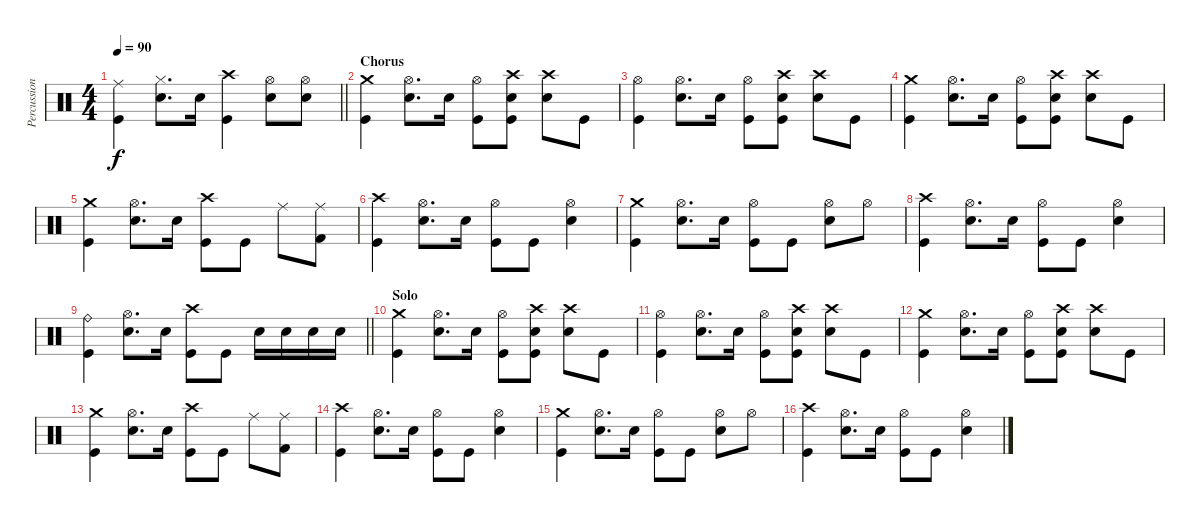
\track ("Percussion" "Percussion") {instrument percussion}
\staff {score}
\articulation defaults
\ts (4 4)
\tempo 90
\clef neutral
\barLineRight lightlight
\ks c
("Ride (middle)" "Kick (hit)").4{dy f} ("Electric Snare (hit)" "Hi-Hat (closed)").8{d} "Electric Snare (hit)".16 ("Crash high (hit)" "Kick (hit)").4 ("Electric Snare (hit)" "Hi-Hat (open)").8 ("Electric Snare (hit)" "Hi-Hat (open)").8 |
\section ("" "Chorus")
("Crash medium (hit)" "Kick (hit)").4 ("Electric Snare (hit)" "Hi-Hat (open)").8{d} "Electric Snare (hit)".16 ("Hi-Hat (open)" "Kick (hit)").8 ("Crash high (hit)" "Electric Snare (hit)" "Kick (hit)").8 ("Crash high (hit)" "Electric Snare (hit)").8 "Kick (hit)".8 |
("Hi-Hat (open)" "Kick (hit)").4 ("Electric Snare (hit)" "Hi-Hat (open)").8{d} "Electric Snare (hit)".16 ("Hi-Hat (open)" "Kick (hit)").8 ("Crash high (hit)" "Electric Snare (hit)" "Kick (hit)").8 ("Crash high (hit)" "Electric Snare (hit)").8 "Kick (hit)".8 |
("Crash medium (hit)" "Kick (hit)").4 ("Electric Snare (hit)" "Hi-Hat (open)").8{d} "Electric Snare (hit)".16 ("Hi-Hat (open)" "Kick (hit)").8 ("Crash high (hit)" "Electric Snare (hit)" "Kick (hit)").8 ("Crash high (hit)" "Electric Snare (hit)").8 "Kick (hit)".8 |
("Crash medium (hit)" "Kick (hit)").4 ("Electric Snare (hit)" "Hi-Hat (open)").8{d} "Electric Snare (hit)".16 ("Crash high (hit)" "Kick (hit)").8 "Kick (hit)".8 "Ride (middle)".8 ("Ride (middle)" "Kick (hit) 2").8 |
("Crash high (hit)" "Kick (hit)").4 ("Electric Snare (hit)" "Hi-Hat (open)").8{d} "Electric Snare (hit)".16 ("Hi-Hat (open)" "Kick (hit)").8 "Kick (hit)".8 ("Electric Snare (hit)" "Hi-Hat (open)").4 |
("Crash medium (hit)" "Kick (hit)").4 ("Electric Snare (hit)" "Hi-Hat (open)").8{d} "Electric Snare (hit)".16 ("Hi-Hat (open)" "Kick (hit)").8 "Kick (hit)".8 ("Electric Snare (hit)" "Hi-Hat (open)").8 "Hi-Hat (open)".8 |
("Crash high (hit)" "Kick (hit)").4 ("Electric Snare (hit)" "Hi-Hat (open)").8{d} "Electric Snare (hit)".16 ("Hi-Hat (open)" "Kick (hit)").8 "Kick (hit)".8 ("Electric Snare (hit)" "Hi-Hat (open)").4 |
\barLineRight lightlight
("Ride (bell)" "Kick (hit)").4 ("Electric Snare (hit)" "Hi-Hat (open)").8{d} "Electric Snare (hit)".16 ("Crash high (hit)" "Kick (hit)").8 "Kick (hit)".8 "Electric Snare (hit)".16 "Electric Snare (hit)".16 "Electric Snare (hit)".16 "Electric Snare (hit)".16 |
\section ("" "Solo")
("Crash medium (hit)" "Kick (hit)").4 ("Electric Snare (hit)" "Hi-Hat (open)").8{d} "Electric Snare (hit)".16 ("Hi-Hat (open)" "Kick (hit)").8 ("Crash high (hit)" "Electric Snare (hit)" "Kick (hit)").8 ("Crash high (hit)" "Electric Snare (hit)").8 "Kick (hit)".8 |
("Hi-Hat (open)" "Kick (hit)").4 ("Electric Snare (hit)" "Hi-Hat (open)").8{d} "Electric Snare (hit)".16 ("Hi-Hat (open)" "Kick (hit)").8 ("Crash high (hit)" "Electric Snare (hit)" "Kick (hit)").8 ("Crash high (hit)" "Electric Snare (hit)").8 "Kick (hit)".8 |
("Crash medium (hit)" "Kick (hit)").4 ("Electric Snare (hit)" "Hi-Hat (open)").8{d} "Electric Snare (hit)".16 ("Hi-Hat (open)" "Kick (hit)").8 ("Crash high (hit)" "Electric Snare (hit)" "Kick (hit)").8 ("Crash high (hit)" "Electric Snare (hit)").8 "Kick (hit)".8 |
("Crash medium (hit)" "Kick (hit)").4 ("Electric Snare (hit)" "Hi-Hat (open)").8{d} "Electric Snare (hit)".16 ("Crash high (hit)" "Kick (hit)").8 "Kick (hit)".8 "Ride (middle)".8 ("Ride (middle)" "Kick (hit) 2").8 |
("Crash high (hit)" "Kick (hit)").4 ("Electric Snare (hit)" "Hi-Hat (open)").8{d} "Electric Snare (hit)".16 ("Hi-Hat (open)" "Kick (hit)").8 "Kick (hit)".8 ("Electric Snare (hit)" "Hi-Hat (open)").4 |
("Crash medium (hit)" "Kick (hit)").4 ("Electric Snare (hit)" "Hi-Hat (open)").8{d} "Electric Snare (hit)".16 ("Hi-Hat (open)" "Kick (hit)").8 "Kick (hit)".8 ("Electric Snare (hit)" "Hi-Hat (open)").8 "Hi-Hat (open)".8 |
("Crash high (hit)" "Kick (hit)").4 ("Electric Snare (hit)" "Hi-Hat (open)").8{d} "Electric Snare (hit)".16 ("Hi-Hat (open)" "Kick (hit)").8 "Kick (hit)".8 ("Electric Snare (hit)" "Hi-Hat (open)").4
